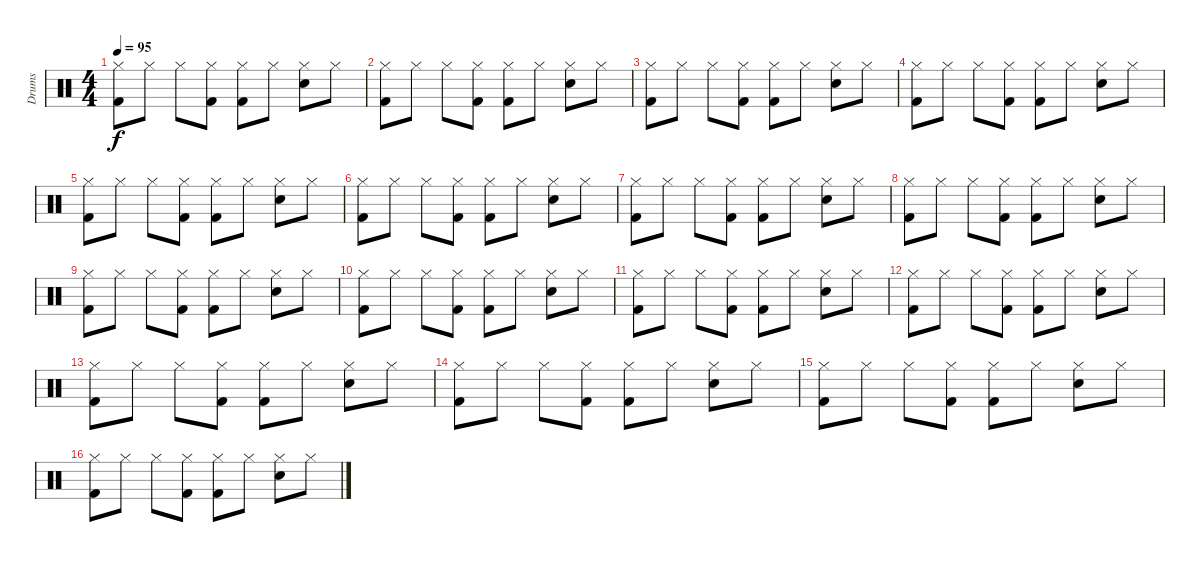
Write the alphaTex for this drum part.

\track ("Drums" "Drums") {instrument percussion}
\staff {score}
\articulation defaults
\ts (4 4)
\tempo 95
\clef neutral
\ks c
("Kick (hit) 2" "Hi-Hat (closed)").8{dy f} "Hi-Hat (closed)".8 "Hi-Hat (closed)".8 ("Kick (hit) 2" "Hi-Hat (closed)").8 ("Kick (hit) 2" "Hi-Hat (closed)").8 "Hi-Hat (closed)".8 ("Snare (hit) 2" "Hi-Hat (closed)").8 "Hi-Hat (closed)".8 |
("Kick (hit) 2" "Hi-Hat (closed)").8 "Hi-Hat (closed)".8 "Hi-Hat (closed)".8 ("Kick (hit) 2" "Hi-Hat (closed)").8 ("Kick (hit) 2" "Hi-Hat (closed)").8 "Hi-Hat (closed)".8 ("Snare (hit) 2" "Hi-Hat (closed)").8 "Hi-Hat (closed)".8 |
("Kick (hit) 2" "Hi-Hat (closed)").8 "Hi-Hat (closed)".8 "Hi-Hat (closed)".8 ("Kick (hit) 2" "Hi-Hat (closed)").8 ("Kick (hit) 2" "Hi-Hat (closed)").8 "Hi-Hat (closed)".8 ("Snare (hit) 2" "Hi-Hat (closed)").8 "Hi-Hat (closed)".8 |
("Kick (hit) 2" "Hi-Hat (closed)").8 "Hi-Hat (closed)".8 "Hi-Hat (closed)".8 ("Kick (hit) 2" "Hi-Hat (closed)").8 ("Kick (hit) 2" "Hi-Hat (closed)").8 "Hi-Hat (closed)".8 ("Snare (hit) 2" "Hi-Hat (closed)").8 "Hi-Hat (closed)".8 |
("Kick (hit) 2" "Hi-Hat (closed)").8 "Hi-Hat (closed)".8 "Hi-Hat (closed)".8 ("Kick (hit) 2" "Hi-Hat (closed)").8 ("Kick (hit) 2" "Hi-Hat (closed)").8 "Hi-Hat (closed)".8 ("Snare (hit) 2" "Hi-Hat (closed)").8 "Hi-Hat (closed)".8 |
("Kick (hit) 2" "Hi-Hat (closed)").8 "Hi-Hat (closed)".8 "Hi-Hat (closed)".8 ("Kick (hit) 2" "Hi-Hat (closed)").8 ("Kick (hit) 2" "Hi-Hat (closed)").8 "Hi-Hat (closed)".8 ("Snare (hit) 2" "Hi-Hat (closed)").8 "Hi-Hat (closed)".8 |
("Kick (hit) 2" "Hi-Hat (closed)").8 "Hi-Hat (closed)".8 "Hi-Hat (closed)".8 ("Kick (hit) 2" "Hi-Hat (closed)").8 ("Kick (hit) 2" "Hi-Hat (closed)").8 "Hi-Hat (closed)".8 ("Snare (hit) 2" "Hi-Hat (closed)").8 "Hi-Hat (closed)".8 |
("Kick (hit) 2" "Hi-Hat (closed)").8 "Hi-Hat (closed)".8 "Hi-Hat (closed)".8 ("Kick (hit) 2" "Hi-Hat (closed)").8 ("Kick (hit) 2" "Hi-Hat (closed)").8 "Hi-Hat (closed)".8 ("Snare (hit) 2" "Hi-Hat (closed)").8 "Hi-Hat (closed)".8 |
("Kick (hit) 2" "Hi-Hat (closed)").8 "Hi-Hat (closed)".8 "Hi-Hat (closed)".8 ("Kick (hit) 2" "Hi-Hat (closed)").8 ("Kick (hit) 2" "Hi-Hat (closed)").8 "Hi-Hat (closed)".8 ("Snare (hit) 2" "Hi-Hat (closed)").8 "Hi-Hat (closed)".8 |
("Kick (hit) 2" "Hi-Hat (closed)").8 "Hi-Hat (closed)".8 "Hi-Hat (closed)".8 ("Kick (hit) 2" "Hi-Hat (closed)").8 ("Kick (hit) 2" "Hi-Hat (closed)").8 "Hi-Hat (closed)".8 ("Snare (hit) 2" "Hi-Hat (closed)").8 "Hi-Hat (closed)".8 |
("Kick (hit) 2" "Hi-Hat (closed)").8 "Hi-Hat (closed)".8 "Hi-Hat (closed)".8 ("Kick (hit) 2" "Hi-Hat (closed)").8 ("Kick (hit) 2" "Hi-Hat (closed)").8 "Hi-Hat (closed)".8 ("Snare (hit) 2" "Hi-Hat (closed)").8 "Hi-Hat (closed)".8 |
("Kick (hit) 2" "Hi-Hat (closed)").8 "Hi-Hat (closed)".8 "Hi-Hat (closed)".8 ("Kick (hit) 2" "Hi-Hat (closed)").8 ("Kick (hit) 2" "Hi-Hat (closed)").8 "Hi-Hat (closed)".8 ("Snare (hit) 2" "Hi-Hat (closed)").8 "Hi-Hat (closed)".8 |
("Kick (hit) 2" "Hi-Hat (closed)").8 "Hi-Hat (closed)".8 "Hi-Hat (closed)".8 ("Kick (hit) 2" "Hi-Hat (closed)").8 ("Kick (hit) 2" "Hi-Hat (closed)").8 "Hi-Hat (closed)".8 ("Snare (hit) 2" "Hi-Hat (closed)").8 "Hi-Hat (closed)".8 |
("Kick (hit) 2" "Hi-Hat (closed)").8 "Hi-Hat (closed)".8 "Hi-Hat (closed)".8 ("Kick (hit) 2" "Hi-Hat (closed)").8 ("Kick (hit) 2" "Hi-Hat (closed)").8 "Hi-Hat (closed)".8 ("Snare (hit) 2" "Hi-Hat (closed)").8 "Hi-Hat (closed)".8 |
("Kick (hit) 2" "Hi-Hat (closed)").8 "Hi-Hat (closed)".8 "Hi-Hat (closed)".8 ("Kick (hit) 2" "Hi-Hat (closed)").8 ("Kick (hit) 2" "Hi-Hat (closed)").8 "Hi-Hat (closed)".8 ("Snare (hit) 2" "Hi-Hat (closed)").8 "Hi-Hat (closed)".8 |
("Kick (hit) 2" "Hi-Hat (closed)").8 "Hi-Hat (closed)".8 "Hi-Hat (closed)".8 ("Kick (hit) 2" "Hi-Hat (closed)").8 ("Kick (hit) 2" "Hi-Hat (closed)").8 "Hi-Hat (closed)".8 ("Snare (hit) 2" "Hi-Hat (closed)").8 "Hi-Hat (closed)".8
